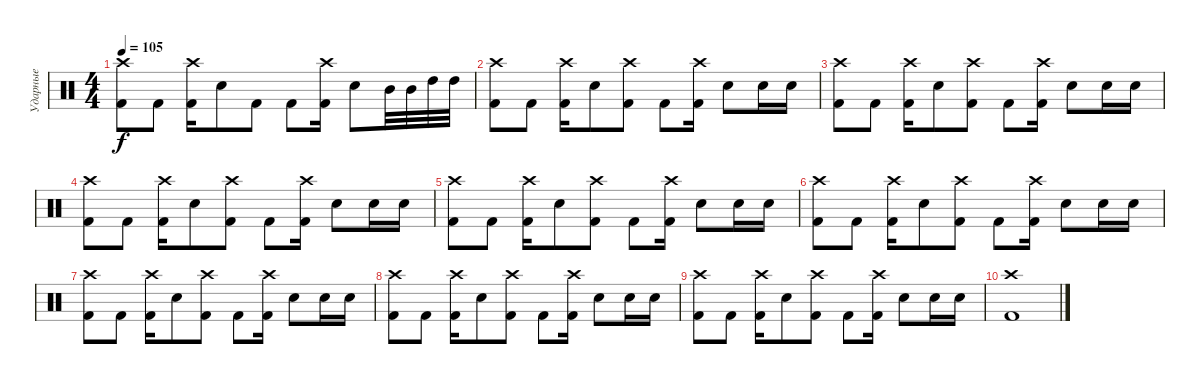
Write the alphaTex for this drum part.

\track ("Ударные" "Ударные") {instrument percussion}
\staff {score}
\articulation defaults
\ts (4 4)
\tempo 105
\clef neutral
\ks c
("Kick (hit) 2" "Crash high (hit)").8{dy f} "Kick (hit) 2".8 ("Kick (hit) 2" "Crash high (hit)").16 "Electric Snare (hit)".8 "Kick (hit) 2".8 "Kick (hit) 2".8 ("Kick (hit) 2" "Crash high (hit)").16 "Electric Snare (hit)".8 "Mid Tom (hit)".32 "Mid Tom (hit)".32 "High Tom (hit)".32 "High Tom (hit)".32 |
("Kick (hit) 2" "Crash high (hit)").8 "Kick (hit) 2".8 ("Kick (hit) 2" "Crash high (hit)").16 "Electric Snare (hit)".8 ("Kick (hit) 2" "Crash high (hit)").8 "Kick (hit) 2".8 ("Kick (hit) 2" "Crash high (hit)").16 "Electric Snare (hit)".8 "Electric Snare (hit)".16 "Electric Snare (hit)".16 |
("Kick (hit) 2" "Crash high (hit)").8 "Kick (hit) 2".8 ("Kick (hit) 2" "Crash high (hit)").16 "Electric Snare (hit)".8 ("Kick (hit) 2" "Crash high (hit)").8 "Kick (hit) 2".8 ("Kick (hit) 2" "Crash high (hit)").16 "Electric Snare (hit)".8 "Electric Snare (hit)".16 "Electric Snare (hit)".16 |
("Kick (hit) 2" "Crash high (hit)").8 "Kick (hit) 2".8 ("Kick (hit) 2" "Crash high (hit)").16 "Electric Snare (hit)".8 ("Kick (hit) 2" "Crash high (hit)").8 "Kick (hit) 2".8 ("Kick (hit) 2" "Crash high (hit)").16 "Electric Snare (hit)".8 "Electric Snare (hit)".16 "Electric Snare (hit)".16 |
("Kick (hit) 2" "Crash high (hit)").8 "Kick (hit) 2".8 ("Kick (hit) 2" "Crash high (hit)").16 "Electric Snare (hit)".8 ("Kick (hit) 2" "Crash high (hit)").8 "Kick (hit) 2".8 ("Kick (hit) 2" "Crash high (hit)").16 "Electric Snare (hit)".8 "Electric Snare (hit)".16 "Electric Snare (hit)".16 |
("Kick (hit) 2" "Crash high (hit)").8 "Kick (hit) 2".8 ("Kick (hit) 2" "Crash high (hit)").16 "Electric Snare (hit)".8 ("Kick (hit) 2" "Crash high (hit)").8 "Kick (hit) 2".8 ("Kick (hit) 2" "Crash high (hit)").16 "Electric Snare (hit)".8 "Electric Snare (hit)".16 "Electric Snare (hit)".16 |
("Kick (hit) 2" "Crash high (hit)").8 "Kick (hit) 2".8 ("Kick (hit) 2" "Crash high (hit)").16 "Electric Snare (hit)".8 ("Kick (hit) 2" "Crash high (hit)").8 "Kick (hit) 2".8 ("Kick (hit) 2" "Crash high (hit)").16 "Electric Snare (hit)".8 "Electric Snare (hit)".16 "Electric Snare (hit)".16 |
("Kick (hit) 2" "Crash high (hit)").8 "Kick (hit) 2".8 ("Kick (hit) 2" "Crash high (hit)").16 "Electric Snare (hit)".8 ("Kick (hit) 2" "Crash high (hit)").8 "Kick (hit) 2".8 ("Kick (hit) 2" "Crash high (hit)").16 "Electric Snare (hit)".8 "Electric Snare (hit)".16 "Electric Snare (hit)".16 |
("Kick (hit) 2" "Crash high (hit)").8 "Kick (hit) 2".8 ("Kick (hit) 2" "Crash high (hit)").16 "Electric Snare (hit)".8 ("Kick (hit) 2" "Crash high (hit)").8 "Kick (hit) 2".8 ("Kick (hit) 2" "Crash high (hit)").16 "Electric Snare (hit)".8 "Electric Snare (hit)".16 "Electric Snare (hit)".16 |
("Kick (hit) 2" "Crash high (hit)").1
